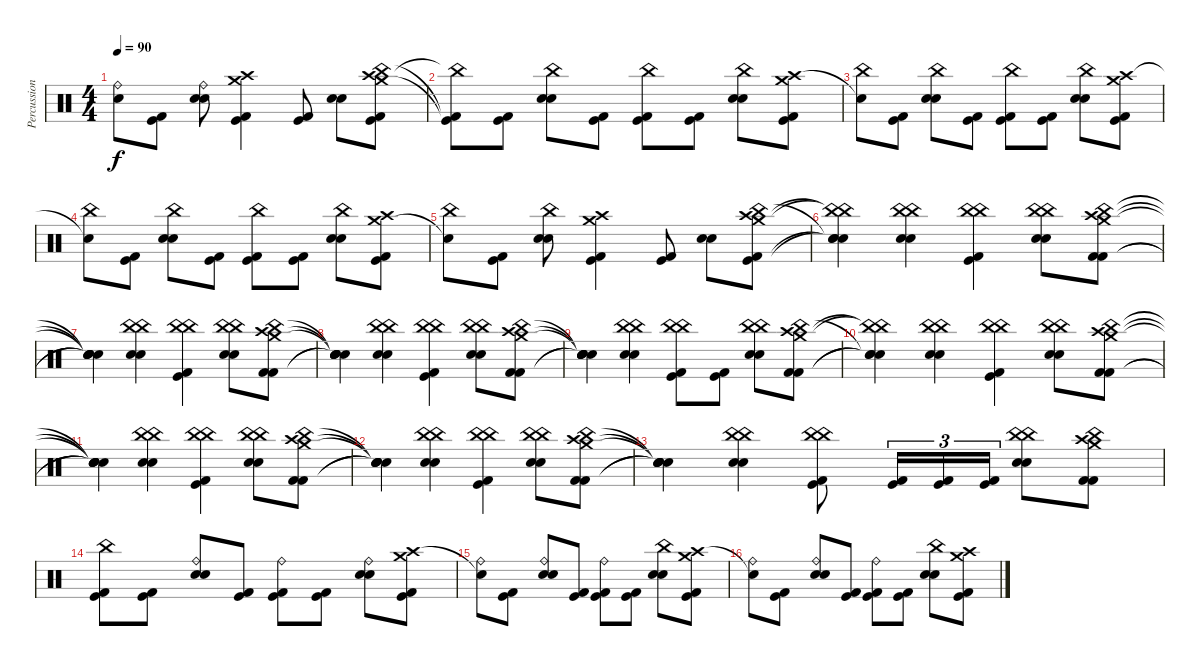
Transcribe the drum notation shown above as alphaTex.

\track ("Percussion" "Percussion") {instrument percussion}
\staff {score}
\articulation defaults
\ts (4 4)
\tempo 90
\clef neutral
\ks c
("Snare (hit)"{t} "Ride (bell)").8{dy f} ("Kick (hit)" "Kick (hit) 2").8 ("Ride (bell)" "Electric Snare (hit)" "Snare (hit) 2").8 ("Crash medium (hit)" "Crash high (hit)" "Kick (hit)" "Kick (hit) 2").4 ("Kick (hit)" "Kick (hit) 2").8 ("Electric Snare (hit)" "Snare (hit) 2").8 ("Crash high (hit)" "Crash medium (hit)" "China (hit)" "Kick (hit)" "Kick (hit) 2").8 |
("China (hit)"{t} "Kick (hit)"{t} "Kick (hit) 2"{t}).8 ("Kick (hit)" "Kick (hit) 2").8 ("China (hit)" "Electric Snare (hit)" "Snare (hit) 2").8 ("Kick (hit)" "Kick (hit) 2").8 ("China (hit)" "Kick (hit)" "Kick (hit) 2").8 ("Kick (hit)" "Kick (hit) 2").8 ("China (hit)" "Electric Snare (hit)" "Snare (hit) 2").8 ("Crash medium (hit)" "Crash high (hit)" "Kick (hit)" "Kick (hit) 2").8 |
("China (hit)" "Snare (hit)"{t}).8 ("Kick (hit)" "Kick (hit) 2").8 ("China (hit)" "Electric Snare (hit)" "Snare (hit) 2").8 ("Kick (hit)" "Kick (hit) 2").8 ("China (hit)" "Kick (hit)" "Kick (hit) 2").8 ("Kick (hit)" "Kick (hit) 2").8 ("China (hit)" "Electric Snare (hit)" "Snare (hit) 2").8 ("Crash medium (hit)" "Crash high (hit)" "Kick (hit)" "Kick (hit) 2").8 |
("China (hit)" "Snare (hit)"{t}).8 ("Kick (hit)" "Kick (hit) 2").8 ("China (hit)" "Electric Snare (hit)" "Snare (hit) 2").8 ("Kick (hit)" "Kick (hit) 2").8 ("China (hit)" "Kick (hit)" "Kick (hit) 2").8 ("Kick (hit)" "Kick (hit) 2").8 ("China (hit)" "Electric Snare (hit)" "Snare (hit) 2").8 ("Crash medium (hit)" "Crash high (hit)" "Kick (hit)" "Kick (hit) 2").8 |
("Snare (hit)"{t} "China (hit)").8 ("Kick (hit)" "Kick (hit) 2").8 ("China (hit)" "Electric Snare (hit)" "Snare (hit) 2").8 ("Crash medium (hit)" "Crash high (hit)" "Kick (hit)" "Kick (hit) 2").4 ("Kick (hit)" "Kick (hit) 2").8 ("Electric Snare (hit)" "Snare (hit) 2").8 ("Crash high (hit)" "Crash medium (hit)" "China (hit)" "Kick (hit)" "Kick (hit) 2").8 |
("China (hit)"{t} "China (hit)"{t} "Snare (hit)"{t} "Snare (hit)"{t} "Snare (hit)"{t}).4 ("China (hit)" "China (hit)" "Electric Snare (hit)" "Snare (hit) 2").4 ("China (hit)" "China (hit)" "Kick (hit)" "Kick (hit) 2").4 ("China (hit)" "China (hit)" "Electric Snare (hit)" "Snare (hit) 2").8 ("Crash high (hit)" "Crash medium (hit)" "China (hit)" "Kick (hit) 2" "Kick (hit) 2").8 |
("Snare (hit)"{t} "Snare (hit)"{t} "Snare (hit)"{t} "Snare (hit)"{t} "Snare (hit)"{t}).4 ("China (hit)" "China (hit)" "Electric Snare (hit)" "Snare (hit) 2").4 ("China (hit)" "China (hit)" "Kick (hit)" "Kick (hit) 2").4 ("China (hit)" "China (hit)" "Electric Snare (hit)" "Snare (hit) 2").8 ("Crash high (hit)" "Crash medium (hit)" "China (hit)" "Kick (hit) 2" "Kick (hit) 2").8 |
("Snare (hit)"{t} "Snare (hit)"{t} "Snare (hit)"{t} "Snare (hit)"{t} "Snare (hit)"{t}).4 ("China (hit)" "China (hit)" "Electric Snare (hit)" "Snare (hit) 2").4 ("China (hit)" "China (hit)" "Kick (hit)" "Kick (hit) 2").4 ("China (hit)" "China (hit)" "Electric Snare (hit)" "Snare (hit) 2").8 ("Crash high (hit)" "Crash medium (hit)" "China (hit)" "Kick (hit) 2" "Kick (hit) 2").8 |
("Snare (hit)"{t} "Snare (hit)"{t} "Snare (hit)"{t} "Snare (hit)"{t} "Snare (hit)"{t}).4 ("China (hit)" "China (hit)" "Electric Snare (hit)" "Snare (hit) 2").4 ("China (hit)" "China (hit)" "Kick (hit)" "Kick (hit) 2").8 ("Kick (hit)" "Kick (hit) 2").8 ("China (hit)" "China (hit)" "Electric Snare (hit)" "Snare (hit) 2").8 ("Crash high (hit)" "Crash medium (hit)" "China (hit)" "Kick (hit) 2" "Kick (hit) 2").8 |
("China (hit)"{t} "China (hit)"{t} "Snare (hit)"{t} "Snare (hit)"{t} "Snare (hit)"{t}).4 ("China (hit)" "China (hit)" "Electric Snare (hit)" "Snare (hit) 2").4 ("China (hit)" "China (hit)" "Kick (hit)" "Kick (hit) 2").4 ("China (hit)" "China (hit)" "Electric Snare (hit)" "Snare (hit) 2").8 ("Crash high (hit)" "Crash medium (hit)" "China (hit)" "Kick (hit) 2" "Kick (hit) 2").8 |
("Snare (hit)"{t} "Snare (hit)"{t} "Snare (hit)"{t} "Snare (hit)"{t} "Snare (hit)"{t}).4 ("China (hit)" "China (hit)" "Electric Snare (hit)" "Snare (hit) 2").4 ("China (hit)" "China (hit)" "Kick (hit)" "Kick (hit) 2").4 ("China (hit)" "China (hit)" "Electric Snare (hit)" "Snare (hit) 2").8 ("Crash high (hit)" "Crash medium (hit)" "China (hit)" "Kick (hit) 2" "Kick (hit) 2").8 |
("Snare (hit)"{t} "Snare (hit)"{t} "Snare (hit)"{t} "Snare (hit)"{t} "Snare (hit)"{t}).4 ("China (hit)" "China (hit)" "Electric Snare (hit)" "Snare (hit) 2").4 ("China (hit)" "China (hit)" "Kick (hit)" "Kick (hit) 2").4 ("China (hit)" "China (hit)" "Electric Snare (hit)" "Snare (hit) 2").8 ("Crash high (hit)" "Crash medium (hit)" "China (hit)" "Kick (hit) 2" "Kick (hit) 2").8 |
("Snare (hit)"{t} "Snare (hit)"{t} "Snare (hit)"{t} "Snare (hit)"{t} "Snare (hit)"{t}).4 ("China (hit)" "China (hit)" "Electric Snare (hit)" "Snare (hit) 2").4 ("China (hit)" "China (hit)" "Kick (hit)" "Kick (hit) 2").8 ("Kick (hit)" "Kick (hit) 2").16{tu (3 2)} ("Kick (hit)" "Kick (hit) 2").16{tu (3 2)} ("Kick (hit)" "Kick (hit) 2").16{tu (3 2)} ("China (hit)" "China (hit)" "Electric Snare (hit)" "Snare (hit) 2").8 ("Crash high (hit)" "Crash medium (hit)" "China (hit)" "Kick (hit) 2" "Kick (hit) 2").8 |
("China (hit)" "Kick (hit)" "Kick (hit) 2").8 ("Kick (hit)" "Kick (hit) 2").8 ("Ride (bell)" "Electric Snare (hit)" "Snare (hit) 2").8 ("Kick (hit)" "Kick (hit) 2").8 ("Ride (bell)" "Kick (hit)" "Kick (hit) 2").8 ("Kick (hit)" "Kick (hit) 2").8 ("Ride (bell)" "Electric Snare (hit)" "Snare (hit) 2").8 ("Crash medium (hit)" "Crash high (hit)" "Kick (hit)" "Kick (hit) 2").8 |
("Ride (bell)" "Snare (hit)"{t}).8 ("Kick (hit)" "Kick (hit) 2").8 ("Ride (bell)" "Electric Snare (hit)" "Snare (hit) 2").8 ("Kick (hit)" "Kick (hit) 2").8 ("Ride (bell)" "Kick (hit)" "Kick (hit) 2").8 ("Kick (hit)" "Kick (hit) 2").8 ("China (hit)" "Electric Snare (hit)" "Snare (hit) 2").8 ("Crash medium (hit)" "Crash high (hit)" "Kick (hit)" "Kick (hit) 2").8 |
("Ride (bell)" "Snare (hit)"{t}).8 ("Kick (hit)" "Kick (hit) 2").8 ("Ride (bell)" "Electric Snare (hit)" "Snare (hit) 2").8 ("Kick (hit)" "Kick (hit) 2").8 ("Ride (bell)" "Kick (hit)" "Kick (hit) 2").8 ("Kick (hit)" "Kick (hit) 2").8 ("China (hit)" "Electric Snare (hit)" "Snare (hit) 2").8 ("Crash medium (hit)" "Crash high (hit)" "Kick (hit)" "Kick (hit) 2").8
